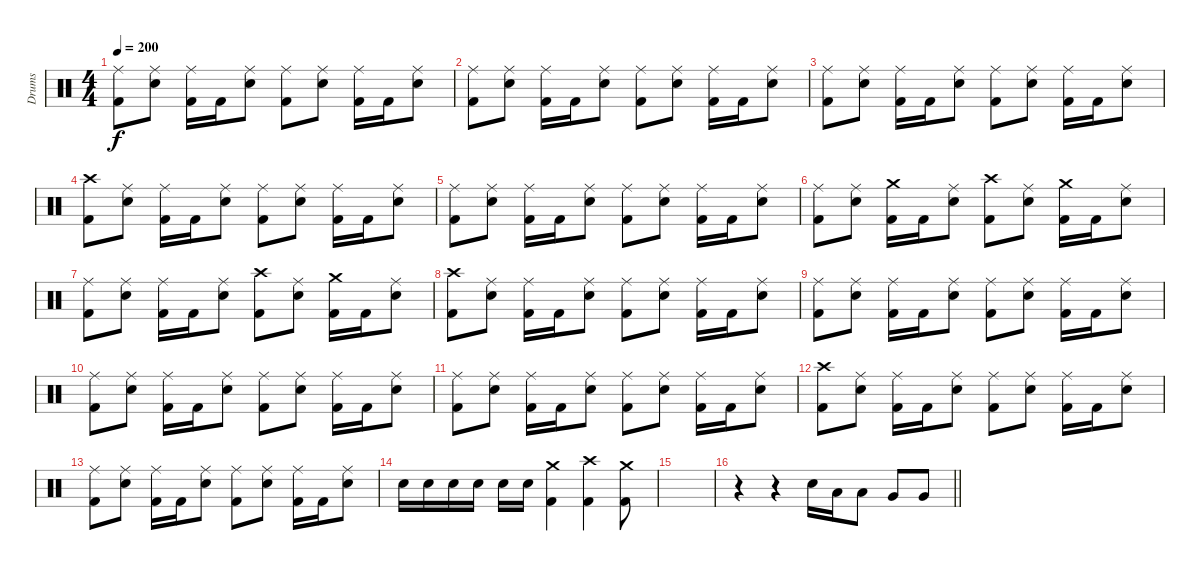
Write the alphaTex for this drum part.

\track ("Drums" "Drums") {instrument percussion}
\staff {score}
\articulation defaults
\ts (4 4)
\tempo 200
\clef neutral
\ks c
("Ride (middle)" "Kick (hit) 2").8{dy f} ("Ride (middle)" "Electric Snare (hit)").8 ("Ride (middle)" "Kick (hit) 2").16 "Kick (hit) 2".16 ("Ride (middle)" "Electric Snare (hit)").8 ("Ride (middle)" "Kick (hit) 2").8 ("Ride (middle)" "Electric Snare (hit)").8 ("Ride (middle)" "Kick (hit) 2").16 "Kick (hit) 2".16 ("Ride (middle)" "Electric Snare (hit)").8 |
("Ride (middle)" "Kick (hit) 2").8 ("Ride (middle)" "Electric Snare (hit)").8 ("Ride (middle)" "Kick (hit) 2").16 "Kick (hit) 2".16 ("Ride (middle)" "Electric Snare (hit)").8 ("Ride (middle)" "Kick (hit) 2").8 ("Ride (middle)" "Electric Snare (hit)").8 ("Ride (middle)" "Kick (hit) 2").16 "Kick (hit) 2".16 ("Ride (middle)" "Electric Snare (hit)").8 |
("Ride (middle)" "Kick (hit) 2").8 ("Ride (middle)" "Electric Snare (hit)").8 ("Ride (middle)" "Kick (hit) 2").16 "Kick (hit) 2".16 ("Ride (middle)" "Electric Snare (hit)").8 ("Ride (middle)" "Kick (hit) 2").8 ("Ride (middle)" "Electric Snare (hit)").8 ("Ride (middle)" "Kick (hit) 2").16 "Kick (hit) 2".16 ("Ride (middle)" "Electric Snare (hit)").8 |
("Crash high (hit)" "Kick (hit) 2").8 ("Ride (middle)" "Electric Snare (hit)").8 ("Ride (middle)" "Kick (hit) 2").16 "Kick (hit) 2".16 ("Ride (middle)" "Electric Snare (hit)").8 ("Ride (middle)" "Kick (hit) 2").8 ("Ride (middle)" "Electric Snare (hit)").8 ("Ride (middle)" "Kick (hit) 2").16 "Kick (hit) 2".16 ("Ride (middle)" "Electric Snare (hit)").8 |
("Ride (middle)" "Kick (hit) 2").8 ("Ride (middle)" "Electric Snare (hit)").8 ("Ride (middle)" "Kick (hit) 2").16 "Kick (hit) 2".16 ("Ride (middle)" "Electric Snare (hit)").8 ("Ride (middle)" "Kick (hit) 2").8 ("Ride (middle)" "Electric Snare (hit)").8 ("Ride (middle)" "Kick (hit) 2").16 "Kick (hit) 2".16 ("Ride (middle)" "Electric Snare (hit)").8 |
("Ride (middle)" "Kick (hit) 2").8 ("Ride (middle)" "Electric Snare (hit)").8 ("Crash medium (hit)" "Kick (hit) 2").16 "Kick (hit) 2".16 ("Ride (middle)" "Electric Snare (hit)").8 ("Crash high (hit)" "Kick (hit) 2").8 ("Ride (middle)" "Electric Snare (hit)").8 ("Crash medium (hit)" "Kick (hit) 2").16 "Kick (hit) 2".16 ("Ride (middle)" "Electric Snare (hit)").8 |
("Ride (middle)" "Kick (hit) 2").8 ("Ride (middle)" "Electric Snare (hit)").8 ("Ride (middle)" "Kick (hit) 2").16 "Kick (hit) 2".16 ("Ride (middle)" "Electric Snare (hit)").8 ("Crash high (hit)" "Kick (hit) 2").8 ("Ride (middle)" "Electric Snare (hit)").8 ("Crash medium (hit)" "Kick (hit) 2").16 "Kick (hit) 2".16 ("Ride (middle)" "Electric Snare (hit)").8 |
("Crash high (hit)" "Kick (hit) 2").8 ("Ride (middle)" "Electric Snare (hit)").8 ("Ride (middle)" "Kick (hit) 2").16 "Kick (hit) 2".16 ("Ride (middle)" "Electric Snare (hit)").8 ("Ride (middle)" "Kick (hit) 2").8 ("Ride (middle)" "Electric Snare (hit)").8 ("Ride (middle)" "Kick (hit) 2").16 "Kick (hit) 2".16 ("Ride (middle)" "Electric Snare (hit)").8 |
("Ride (middle)" "Kick (hit) 2").8 ("Ride (middle)" "Electric Snare (hit)").8 ("Ride (middle)" "Kick (hit) 2").16 "Kick (hit) 2".16 ("Ride (middle)" "Electric Snare (hit)").8 ("Ride (middle)" "Kick (hit) 2").8 ("Ride (middle)" "Electric Snare (hit)").8 ("Ride (middle)" "Kick (hit) 2").16 "Kick (hit) 2".16 ("Ride (middle)" "Electric Snare (hit)").8 |
("Ride (middle)" "Kick (hit) 2").8 ("Ride (middle)" "Electric Snare (hit)").8 ("Ride (middle)" "Kick (hit) 2").16 "Kick (hit) 2".16 ("Ride (middle)" "Electric Snare (hit)").8 ("Ride (middle)" "Kick (hit) 2").8 ("Ride (middle)" "Electric Snare (hit)").8 ("Ride (middle)" "Kick (hit) 2").16 "Kick (hit) 2".16 ("Ride (middle)" "Electric Snare (hit)").8 |
("Ride (middle)" "Kick (hit) 2").8 ("Ride (middle)" "Electric Snare (hit)").8 ("Ride (middle)" "Kick (hit) 2").16 "Kick (hit) 2".16 ("Ride (middle)" "Electric Snare (hit)").8 ("Ride (middle)" "Kick (hit) 2").8 ("Ride (middle)" "Electric Snare (hit)").8 ("Ride (middle)" "Kick (hit) 2").16 "Kick (hit) 2".16 ("Ride (middle)" "Electric Snare (hit)").8 |
("Crash high (hit)" "Kick (hit) 2").8 ("Ride (middle)" "Electric Snare (hit)").8 ("Ride (middle)" "Kick (hit) 2").16 "Kick (hit) 2".16 ("Ride (middle)" "Electric Snare (hit)").8 ("Ride (middle)" "Kick (hit) 2").8 ("Ride (middle)" "Electric Snare (hit)").8 ("Ride (middle)" "Kick (hit) 2").16 "Kick (hit) 2".16 ("Ride (middle)" "Electric Snare (hit)").8 |
("Ride (middle)" "Kick (hit) 2").8 ("Ride (middle)" "Electric Snare (hit)").8 ("Ride (middle)" "Kick (hit) 2").16 "Kick (hit) 2".16 ("Ride (middle)" "Electric Snare (hit)").8 ("Ride (middle)" "Kick (hit) 2").8 ("Ride (middle)" "Electric Snare (hit)").8 ("Ride (middle)" "Kick (hit) 2").16 "Kick (hit) 2".16 ("Ride (middle)" "Electric Snare (hit)").8 |
"Electric Snare (hit)".16 "Electric Snare (hit)".16 "Electric Snare (hit)".16 "Electric Snare (hit)".16 "Electric Snare (hit)".16 "Electric Snare (hit)".16 ("Crash medium (hit)" "Kick (hit) 2").4 ("Crash high (hit)" "Kick (hit) 2").4 ("Crash medium (hit)" "Kick (hit) 2").8 |
|
\barLineRight lightlight
r.4 r.4 "Electric Snare (hit)".16 "Low Tom (hit)".16 "Low Tom (hit)".8 "Very Low Tom (hit)".8 "Very Low Tom (hit)".8
